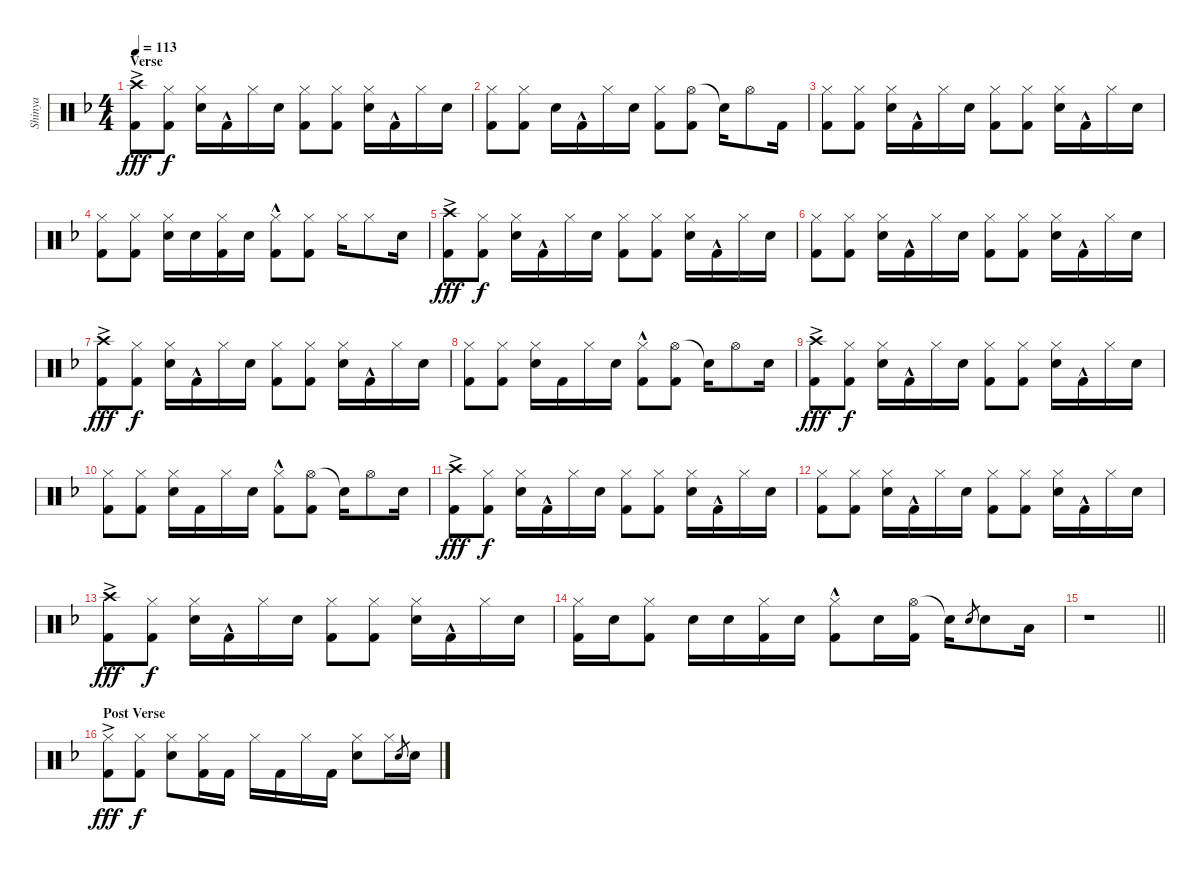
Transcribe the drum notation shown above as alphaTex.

\track ("Shinya" "Shinya") {instrument percussion}
\staff {score}
\articulation defaults
\ts (4 4)
\section ("" "Verse")
\tempo 113
\clef neutral
\ks f
("Crash high (hit)"{ac} "Kick (hit) 2").8{dy fff} ("Hi-Hat (closed)" "Kick (hit) 2").8{dy f} ("Hi-Hat (closed)" "Snare (hit) 2").16 "Kick (hit) 2"{hac}.16 "Hi-Hat (closed)".16 "Snare (hit) 2".16 ("Hi-Hat (closed)" "Kick (hit) 2").8 ("Hi-Hat (closed)" "Kick (hit) 2").8 ("Hi-Hat (closed)" "Snare (hit) 2").16 "Kick (hit) 2"{hac}.16 "Hi-Hat (closed)".16 "Snare (hit) 2".16 |
("Hi-Hat (closed)" "Kick (hit) 2").8 ("Hi-Hat (closed)" "Kick (hit) 2").8 "Snare (hit) 2".16 "Kick (hit) 2"{hac}.16 "Hi-Hat (closed)".16 "Snare (hit) 2".16 ("Hi-Hat (closed)" "Kick (hit) 2").8 ("Hi-Hat (open)" "Kick (hit) 2").8 "Snare (hit)"{t}.16 "Hi-Hat (open)".8 "Kick (hit) 2".16 |
("Hi-Hat (closed)" "Kick (hit) 2").8 ("Hi-Hat (closed)" "Kick (hit) 2").8 ("Hi-Hat (closed)" "Snare (hit) 2").16 "Kick (hit) 2"{hac}.16 "Hi-Hat (closed)".16 "Snare (hit) 2".16 ("Hi-Hat (closed)" "Kick (hit) 2").8 ("Hi-Hat (closed)" "Kick (hit) 2").8 ("Hi-Hat (closed)" "Snare (hit) 2").16 "Kick (hit) 2"{hac}.16 "Hi-Hat (closed)".16 "Snare (hit) 2".16 |
("Hi-Hat (closed)" "Kick (hit) 2").8 ("Hi-Hat (closed)" "Kick (hit) 2").8 ("Hi-Hat (closed)" "Snare (hit) 2").16 "Snare (hit) 2".16 ("Hi-Hat (closed)" "Kick (hit) 2").16 "Snare (hit) 2".16 ("Hi-Hat (closed)"{hac} "Kick (hit) 2").8 ("Hi-Hat (closed)" "Kick (hit) 2").8 "Hi-Hat (closed)".16 "Hi-Hat (closed)".8 "Snare (hit) 2".16 |
("Crash high (hit)"{ac} "Kick (hit) 2").8{dy fff} ("Hi-Hat (closed)" "Kick (hit) 2").8{dy f} ("Hi-Hat (closed)" "Snare (hit) 2").16 "Kick (hit) 2"{hac}.16 "Hi-Hat (closed)".16 "Snare (hit) 2".16 ("Hi-Hat (closed)" "Kick (hit) 2").8 ("Hi-Hat (closed)" "Kick (hit) 2").8 ("Hi-Hat (closed)" "Snare (hit) 2").16 "Kick (hit) 2"{hac}.16 "Hi-Hat (closed)".16 "Snare (hit) 2".16 |
("Hi-Hat (closed)" "Kick (hit) 2").8 ("Hi-Hat (closed)" "Kick (hit) 2").8 ("Hi-Hat (closed)" "Snare (hit) 2").16 "Kick (hit) 2"{hac}.16 "Hi-Hat (closed)".16 "Snare (hit) 2".16 ("Hi-Hat (closed)" "Kick (hit) 2").8 ("Hi-Hat (closed)" "Kick (hit) 2").8 ("Hi-Hat (closed)" "Snare (hit) 2").16 "Kick (hit) 2"{hac}.16 "Hi-Hat (closed)".16 "Snare (hit) 2".16 |
("Crash high (hit)"{ac} "Kick (hit) 2").8{dy fff} ("Hi-Hat (closed)" "Kick (hit) 2").8{dy f} ("Hi-Hat (closed)" "Snare (hit) 2").16 "Kick (hit) 2"{hac}.16 "Hi-Hat (closed)".16 "Snare (hit) 2".16 ("Hi-Hat (closed)" "Kick (hit) 2").8 ("Hi-Hat (closed)" "Kick (hit) 2").8 ("Hi-Hat (closed)" "Snare (hit) 2").16 "Kick (hit) 2"{hac}.16 "Hi-Hat (closed)".16 "Snare (hit) 2".16 |
("Hi-Hat (closed)" "Kick (hit) 2").8 ("Hi-Hat (closed)" "Kick (hit) 2").8 ("Hi-Hat (closed)" "Snare (hit) 2").16 "Kick (hit) 2".16 "Hi-Hat (closed)".16 "Snare (hit) 2".16 ("Hi-Hat (closed)"{hac} "Kick (hit) 2").8 ("Hi-Hat (open)" "Kick (hit) 2").8 "Snare (hit)"{t}.16 "Hi-Hat (open)".8 "Snare (hit) 2".16 |
("Crash high (hit)"{ac} "Kick (hit) 2").8{dy fff} ("Hi-Hat (closed)" "Kick (hit) 2").8{dy f} ("Hi-Hat (closed)" "Snare (hit) 2").16 "Kick (hit) 2"{hac}.16 "Hi-Hat (closed)".16 "Snare (hit) 2".16 ("Hi-Hat (closed)" "Kick (hit) 2").8 ("Hi-Hat (closed)" "Kick (hit) 2").8 ("Hi-Hat (closed)" "Snare (hit) 2").16 "Kick (hit) 2"{hac}.16 "Hi-Hat (closed)".16 "Snare (hit) 2".16 |
("Hi-Hat (closed)" "Kick (hit) 2").8 ("Hi-Hat (closed)" "Kick (hit) 2").8 ("Hi-Hat (closed)" "Snare (hit) 2").16 "Kick (hit) 2".16 "Hi-Hat (closed)".16 "Snare (hit) 2".16 ("Hi-Hat (closed)"{hac} "Kick (hit) 2").8 ("Hi-Hat (open)" "Kick (hit) 2").8 "Snare (hit)"{t}.16 "Hi-Hat (open)".8 "Snare (hit) 2".16 |
("Crash high (hit)"{ac} "Kick (hit) 2").8{dy fff} ("Hi-Hat (closed)" "Kick (hit) 2").8{dy f} ("Hi-Hat (closed)" "Snare (hit) 2").16 "Kick (hit) 2"{hac}.16 "Hi-Hat (closed)".16 "Snare (hit) 2".16 ("Hi-Hat (closed)" "Kick (hit) 2").8 ("Hi-Hat (closed)" "Kick (hit) 2").8 ("Hi-Hat (closed)" "Snare (hit) 2").16 "Kick (hit) 2"{hac}.16 "Hi-Hat (closed)".16 "Snare (hit) 2".16 |
("Hi-Hat (closed)" "Kick (hit) 2").8 ("Hi-Hat (closed)" "Kick (hit) 2").8 ("Hi-Hat (closed)" "Snare (hit) 2").16 "Kick (hit) 2"{hac}.16 "Hi-Hat (closed)".16 "Snare (hit) 2".16 ("Hi-Hat (closed)" "Kick (hit) 2").8 ("Hi-Hat (closed)" "Kick (hit) 2").8 ("Hi-Hat (closed)" "Snare (hit) 2").16 "Kick (hit) 2"{hac}.16 "Hi-Hat (closed)".16 "Snare (hit) 2".16 |
("Crash high (hit)"{ac} "Kick (hit) 2").8{dy fff} ("Hi-Hat (closed)" "Kick (hit) 2").8{dy f} ("Hi-Hat (closed)" "Snare (hit) 2").16 "Kick (hit) 2"{hac}.16 "Hi-Hat (closed)".16 "Snare (hit) 2".16 ("Hi-Hat (closed)" "Kick (hit) 2").8 ("Hi-Hat (closed)" "Kick (hit) 2").8 ("Hi-Hat (closed)" "Snare (hit) 2").16 "Kick (hit) 2"{hac}.16 "Hi-Hat (closed)".16 "Snare (hit) 2".16 |
("Hi-Hat (closed)" "Kick (hit) 2").16 "Snare (hit) 2".16 ("Hi-Hat (closed)" "Kick (hit) 2").8 "Snare (hit) 2".16 "Snare (hit) 2".16 ("Hi-Hat (closed)" "Kick (hit) 2").16 "Snare (hit) 2".16 ("Hi-Hat (closed)" "Kick (hit) 2"{hac}).8 "Snare (hit) 2".16 ("Hi-Hat (open)" "Kick (hit) 2").16 "Snare (hit)"{t}.16 "Snare (hit) 2".8{gr} "Snare (hit) 2".8 "Low Tom (hit)".16 |
\barLineRight lightlight
r.1 |
\section ("" "Post Verse")
("Hi-Hat (closed)"{ac} "Kick (hit) 2").8{dy fff} ("Hi-Hat (closed)" "Kick (hit) 2").8{dy f} ("Hi-Hat (closed)" "Snare (hit) 2").8 ("Hi-Hat (closed)" "Kick (hit) 2").16 "Kick (hit) 2".16 "Hi-Hat (closed)".16 "Kick (hit) 2".16 "Hi-Hat (closed)".16 "Kick (hit) 2".16 ("Hi-Hat (closed)" "Snare (hit) 2").8 "Hi-Hat (closed)".16 "Snare (hit) 2".8{gr} "Snare (hit) 2".16
